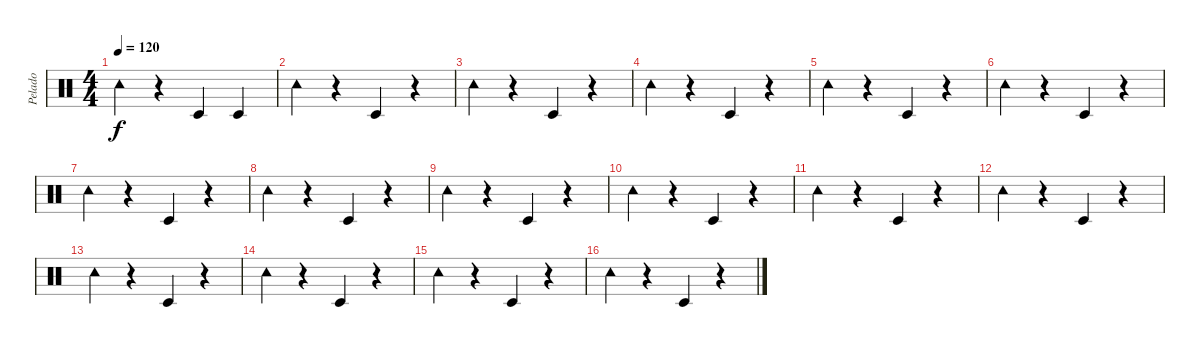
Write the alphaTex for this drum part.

\track ("Pelado" "Pelado") {instrument percussion}
\staff {score}
\articulation defaults
\ts (4 4)
\tempo 120
\clef neutral
\ks c "Tambourine (hit)".4{dy f}
r.4 "Timbale low (hit)".4 "Timbale low (hit)".4 |
"Tambourine (hit)".4 r.4 "Timbale low (hit)".4 r.4 |
"Tambourine (hit)".4 r.4 "Timbale low (hit)".4 r.4 |
"Tambourine (hit)".4 r.4 "Timbale low (hit)".4 r.4 |
"Tambourine (hit)".4 r.4 "Timbale low (hit)".4 r.4 |
"Tambourine (hit)".4 r.4 "Timbale low (hit)".4 r.4 |
"Tambourine (hit)".4 r.4 "Timbale low (hit)".4 r.4 |
"Tambourine (hit)".4 r.4 "Timbale low (hit)".4 r.4 |
"Tambourine (hit)".4 r.4 "Timbale low (hit)".4 r.4 |
"Tambourine (hit)".4 r.4 "Timbale low (hit)".4 r.4 |
"Tambourine (hit)".4 r.4 "Timbale low (hit)".4 r.4 |
"Tambourine (hit)".4 r.4 "Timbale low (hit)".4 r.4 |
"Tambourine (hit)".4 r.4 "Timbale low (hit)".4 r.4 |
"Tambourine (hit)".4 r.4 "Timbale low (hit)".4 r.4 |
"Tambourine (hit)".4 r.4 "Timbale low (hit)".4 r.4 |
"Tambourine (hit)".4 r.4 "Timbale low (hit)".4 r.4
